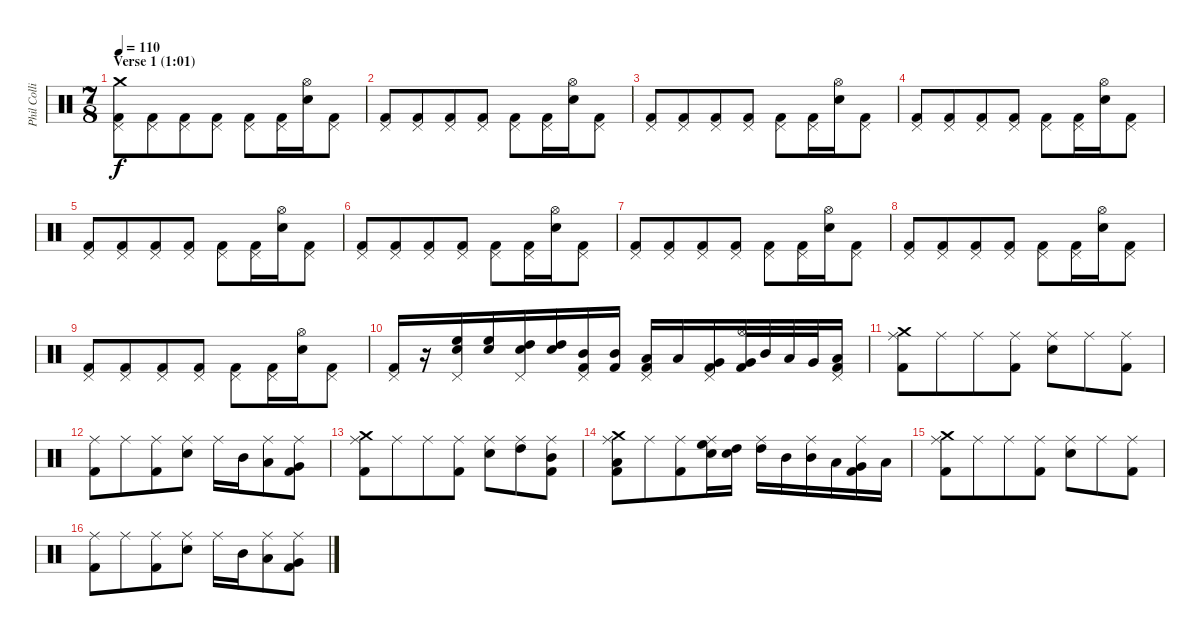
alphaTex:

\track ("Phil Collins (drums)" "Phil Colli") {instrument percussion}
\staff {score}
\articulation defaults
\ts (7 8)
\section ("" "Verse 1 (1:01)")
\tempo 110
\clef neutral
\ks c
("Crash medium (hit)" "Pedal Hi-Hat (hit)" "Kick (hit) 2").8{dy f} ("Pedal Hi-Hat (hit)" "Kick (hit) 2").8 ("Pedal Hi-Hat (hit)" "Kick (hit) 2").8 ("Pedal Hi-Hat (hit)" "Kick (hit) 2").8 ("Pedal Hi-Hat (hit)" "Kick (hit) 2").8 ("Pedal Hi-Hat (hit)" "Kick (hit) 2").16 ("Hi-Hat (open)" "Electric Snare (hit)").16 ("Pedal Hi-Hat (hit)" "Kick (hit) 2").8 |
("Pedal Hi-Hat (hit)" "Kick (hit) 2").8 ("Pedal Hi-Hat (hit)" "Kick (hit) 2").8 ("Pedal Hi-Hat (hit)" "Kick (hit) 2").8 ("Pedal Hi-Hat (hit)" "Kick (hit) 2").8 ("Pedal Hi-Hat (hit)" "Kick (hit) 2").8 ("Pedal Hi-Hat (hit)" "Kick (hit) 2").16 ("Hi-Hat (open)" "Electric Snare (hit)").16 ("Pedal Hi-Hat (hit)" "Kick (hit) 2").8 |
("Pedal Hi-Hat (hit)" "Kick (hit) 2").8 ("Pedal Hi-Hat (hit)" "Kick (hit) 2").8 ("Pedal Hi-Hat (hit)" "Kick (hit) 2").8 ("Pedal Hi-Hat (hit)" "Kick (hit) 2").8 ("Pedal Hi-Hat (hit)" "Kick (hit) 2").8 ("Pedal Hi-Hat (hit)" "Kick (hit) 2").16 ("Hi-Hat (open)" "Electric Snare (hit)").16 ("Pedal Hi-Hat (hit)" "Kick (hit) 2").8 |
("Pedal Hi-Hat (hit)" "Kick (hit) 2").8 ("Pedal Hi-Hat (hit)" "Kick (hit) 2").8 ("Pedal Hi-Hat (hit)" "Kick (hit) 2").8 ("Pedal Hi-Hat (hit)" "Kick (hit) 2").8 ("Pedal Hi-Hat (hit)" "Kick (hit) 2").8 ("Pedal Hi-Hat (hit)" "Kick (hit) 2").16 ("Hi-Hat (open)" "Electric Snare (hit)").16 ("Pedal Hi-Hat (hit)" "Kick (hit) 2").8 |
("Pedal Hi-Hat (hit)" "Kick (hit) 2").8 ("Pedal Hi-Hat (hit)" "Kick (hit) 2").8 ("Pedal Hi-Hat (hit)" "Kick (hit) 2").8 ("Pedal Hi-Hat (hit)" "Kick (hit) 2").8 ("Pedal Hi-Hat (hit)" "Kick (hit) 2").8 ("Pedal Hi-Hat (hit)" "Kick (hit) 2").16 ("Hi-Hat (open)" "Electric Snare (hit)").16 ("Pedal Hi-Hat (hit)" "Kick (hit) 2").8 |
("Pedal Hi-Hat (hit)" "Kick (hit) 2").8 ("Pedal Hi-Hat (hit)" "Kick (hit) 2").8 ("Pedal Hi-Hat (hit)" "Kick (hit) 2").8 ("Pedal Hi-Hat (hit)" "Kick (hit) 2").8 ("Pedal Hi-Hat (hit)" "Kick (hit) 2").8 ("Pedal Hi-Hat (hit)" "Kick (hit) 2").16 ("Hi-Hat (open)" "Electric Snare (hit)").16 ("Pedal Hi-Hat (hit)" "Kick (hit) 2").8 |
("Pedal Hi-Hat (hit)" "Kick (hit) 2").8 ("Pedal Hi-Hat (hit)" "Kick (hit) 2").8 ("Pedal Hi-Hat (hit)" "Kick (hit) 2").8 ("Pedal Hi-Hat (hit)" "Kick (hit) 2").8 ("Pedal Hi-Hat (hit)" "Kick (hit) 2").8 ("Pedal Hi-Hat (hit)" "Kick (hit) 2").16 ("Hi-Hat (open)" "Electric Snare (hit)").16 ("Pedal Hi-Hat (hit)" "Kick (hit) 2").8 |
("Pedal Hi-Hat (hit)" "Kick (hit) 2").8 ("Pedal Hi-Hat (hit)" "Kick (hit) 2").8 ("Pedal Hi-Hat (hit)" "Kick (hit) 2").8 ("Pedal Hi-Hat (hit)" "Kick (hit) 2").8 ("Pedal Hi-Hat (hit)" "Kick (hit) 2").8 ("Pedal Hi-Hat (hit)" "Kick (hit) 2").16 ("Hi-Hat (open)" "Electric Snare (hit)").16 ("Pedal Hi-Hat (hit)" "Kick (hit) 2").8 |
("Pedal Hi-Hat (hit)" "Kick (hit) 2").8 ("Pedal Hi-Hat (hit)" "Kick (hit) 2").8 ("Pedal Hi-Hat (hit)" "Kick (hit) 2").8 ("Pedal Hi-Hat (hit)" "Kick (hit) 2").8 ("Pedal Hi-Hat (hit)" "Kick (hit) 2").8 ("Pedal Hi-Hat (hit)" "Kick (hit) 2").16 ("Hi-Hat (open)" "Electric Snare (hit)").16 ("Pedal Hi-Hat (hit)" "Kick (hit) 2").8 |
("Pedal Hi-Hat (hit)" "Kick (hit) 2").16 r.16 ("High Floor Tom (hit)" "Pedal Hi-Hat (hit)" "Electric Snare (hit)").16 ("High Floor Tom (hit)" "Electric Snare (hit)").16 ("High Tom (hit)" "Pedal Hi-Hat (hit)" "Electric Snare (hit)").16 ("High Tom (hit)" "Electric Snare (hit)").16 ("Mid Tom (hit)" "Pedal Hi-Hat (hit)" "Kick (hit) 2").16 ("Mid Tom (hit)" "Kick (hit) 2").16 ("Low Tom (hit)" "Pedal Hi-Hat (hit)" "Kick (hit) 2").16 "Low Tom (hit)".16 ("Very Low Tom (hit)" "Pedal Hi-Hat (hit)" "Kick (hit) 2").16 ("Very Low Tom (hit)" "Hi-Hat (open)" "Kick (hit) 2").32 "Mid Tom (hit)".32 "Low Tom (hit)".32 "Very Low Tom (hit)".32 ("Low Floor Tom (hit)" "Pedal Hi-Hat (hit)" "Kick (hit) 2").16 |
("Ride (middle)" "Crash medium (hit)" "Kick (hit) 2").8 "Ride (middle)".8 "Ride (middle)".8 ("Ride (middle)" "Kick (hit) 2").8 ("Ride (middle)" "Electric Snare (hit)").8 "Ride (middle)".8 ("Ride (middle)" "Kick (hit) 2").8 |
("Ride (middle)" "Kick (hit) 2").8 "Ride (middle)".8 ("Ride (middle)" "Kick (hit) 2").8 ("Ride (middle)" "Electric Snare (hit)").8 "Ride (middle)".16 "Mid Tom (hit)".16 ("Ride (middle)" "Low Tom (hit)").8 ("Ride (middle)" "Very Low Tom (hit)" "Kick (hit) 2").8 |
("Ride (middle)" "Crash medium (hit)" "Kick (hit) 2").8 "Ride (middle)".8 "Ride (middle)".8 ("Ride (middle)" "Kick (hit) 2").8 ("Ride (middle)" "Electric Snare (hit)").8 ("Ride (middle)" "High Tom (hit)").8 ("Ride (middle)" "Mid Tom (hit)" "Kick (hit) 2").8 |
("Crash medium (hit)" "Ride (middle)" "Low Tom (hit)" "Kick (hit) 2").8 "Ride (middle)".8 ("Ride (middle)" "Kick (hit) 2").8 ("Ride (middle)" "High Floor Tom (hit)" "Electric Snare (hit)").16 ("High Tom (hit)" "Electric Snare (hit)").16 ("Ride (middle)" "High Tom (hit)").16 "Mid Tom (hit)".16 ("Ride (middle)" "Mid Tom (hit)").16 "Low Tom (hit)".16 ("Ride (middle)" "Very Low Tom (hit)" "Kick (hit) 2").16 "Low Floor Tom (hit)".16 |
("Ride (middle)" "Crash medium (hit)" "Kick (hit) 2").8 "Ride (middle)".8 "Ride (middle)".8 ("Ride (middle)" "Kick (hit) 2").8 ("Ride (middle)" "Electric Snare (hit)").8 "Ride (middle)".8 ("Ride (middle)" "Kick (hit) 2").8 |
("Ride (middle)" "Kick (hit) 2").8 "Ride (middle)".8 ("Ride (middle)" "Kick (hit) 2").8 ("Ride (middle)" "Electric Snare (hit)").8 "Ride (middle)".16 "Mid Tom (hit)".16 ("Ride (middle)" "Low Tom (hit)").8 ("Ride (middle)" "Very Low Tom (hit)" "Kick (hit) 2").8
